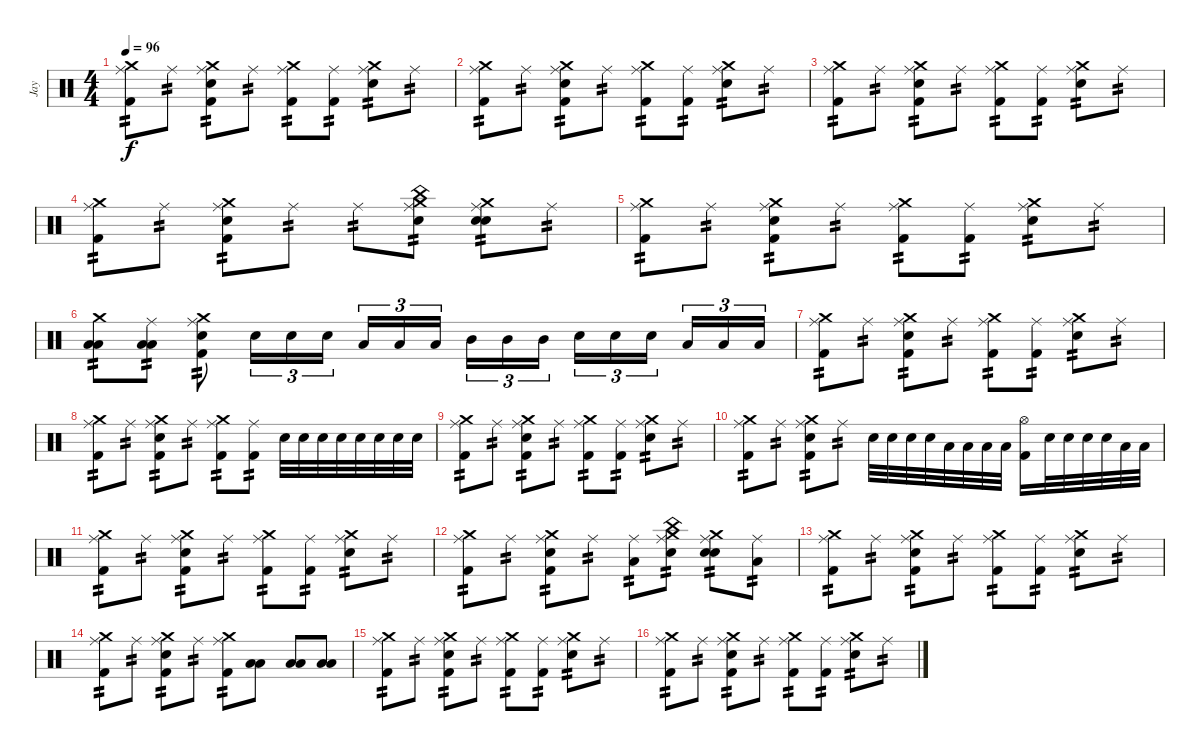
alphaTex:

\track ("Jay" "Jay") {instrument percussion}
\staff {score}
\articulation defaults
\ts (4 4)
\tempo 96
\clef neutral
\ks c
("Crash medium (hit)" "Ride (middle)" "Kick (hit) 2").8{tp 2 dy f} "Ride (middle)".8{tp 2} ("Crash medium (hit)" "Electric Snare (hit)" "Kick (hit) 2" "Ride (middle)").8{tp 2} "Ride (middle)".8{tp 2} ("Crash medium (hit)" "Ride (middle)" "Kick (hit) 2").8{tp 2} ("Ride (middle)" "Kick (hit) 2").8{tp 2} ("Crash medium (hit)" "Ride (middle)" "Electric Snare (hit)").8{tp 2} "Ride (middle)".8{tp 2} |
("Crash medium (hit)" "Ride (middle)" "Kick (hit) 2").8{tp 2} "Ride (middle)".8{tp 2} ("Crash medium (hit)" "Electric Snare (hit)" "Kick (hit) 2" "Ride (middle)").8{tp 2} "Ride (middle)".8{tp 2} ("Crash medium (hit)" "Ride (middle)" "Kick (hit) 2").8{tp 2} ("Ride (middle)" "Kick (hit) 2").8{tp 2} ("Crash medium (hit)" "Ride (middle)" "Electric Snare (hit)").8{tp 2} "Ride (middle)".8{tp 2} |
("Crash medium (hit)" "Ride (middle)" "Kick (hit) 2").8{tp 2} "Ride (middle)".8{tp 2} ("Crash medium (hit)" "Electric Snare (hit)" "Kick (hit) 2" "Ride (middle)").8{tp 2} "Ride (middle)".8{tp 2} ("Crash medium (hit)" "Ride (middle)" "Kick (hit) 2").8{tp 2} ("Ride (middle)" "Kick (hit) 2").8{tp 2} ("Crash medium (hit)" "Ride (middle)" "Electric Snare (hit)").8{tp 2} "Ride (middle)".8{tp 2} |
("Crash medium (hit)" "Ride (middle)" "Kick (hit) 2").8{tp 2} "Ride (middle)".8{tp 2} ("Crash medium (hit)" "Electric Snare (hit)" "Kick (hit) 2" "Ride (middle)").8{tp 2} "Ride (middle)".8{tp 2} "Ride (middle)".8{tp 2} ("Crash medium (hit)" "Ride (middle)" "Electric Snare (hit)" "China (hit)").8{tp 2} ("Crash medium (hit)" "Ride (middle)" "Electric Snare (hit)" "Snare (hit)").8{tp 2} "Ride (middle)".8{tp 2} |
("Crash medium (hit)" "Ride (middle)" "Kick (hit) 2").8{tp 2} "Ride (middle)".8{tp 2} ("Crash medium (hit)" "Electric Snare (hit)" "Kick (hit) 2" "Ride (middle)").8{tp 2} "Ride (middle)".8{tp 2} ("Crash medium (hit)" "Ride (middle)" "Kick (hit) 2").8{tp 2} ("Ride (middle)" "Kick (hit) 2").8{tp 2} ("Crash medium (hit)" "Ride (middle)" "Electric Snare (hit)").8{tp 2} "Ride (middle)".8{tp 2} |
("Crash medium (hit)" "Low Tom (hit)" "Low Tom (hit)").8{tp 2} ("Ride (middle)" "Low Tom (hit)" "Low Tom (hit)").8{tp 2} ("Crash medium (hit)" "Electric Snare (hit)" "Kick (hit) 2" "Ride (middle)").8{tp 2} "Electric Snare (hit)".16{tu (3 2)} "Electric Snare (hit)".16{tu (3 2)} "Electric Snare (hit)".16{tu (3 2)} "Low Tom (hit)".16{tu (3 2)} "Low Tom (hit)".16{tu (3 2)} "Low Tom (hit)".16{tu (3 2) beam splitsecondary} "Mid Tom (hit)".16{tu (3 2)} "Mid Tom (hit)".16{tu (3 2)} "Mid Tom (hit)".16{tu (3 2)} "Electric Snare (hit)".16{tu (3 2)} "Electric Snare (hit)".16{tu (3 2)} "Electric Snare (hit)".16{tu (3 2) beam splitsecondary} "Low Tom (hit)".16{tu (3 2)} "Low Tom (hit)".16{tu (3 2)} "Low Tom (hit)".16{tu (3 2)} |
("Crash medium (hit)" "Ride (middle)" "Kick (hit) 2").8{tp 2} "Ride (middle)".8{tp 2} ("Crash medium (hit)" "Electric Snare (hit)" "Kick (hit) 2" "Ride (middle)").8{tp 2} "Ride (middle)".8{tp 2} ("Crash medium (hit)" "Ride (middle)" "Kick (hit) 2").8{tp 2} ("Ride (middle)" "Kick (hit) 2").8{tp 2} ("Crash medium (hit)" "Ride (middle)" "Electric Snare (hit)").8{tp 2} "Ride (middle)".8{tp 2} |
("Crash medium (hit)" "Ride (middle)" "Kick (hit) 2").8{tp 2} "Ride (middle)".8{tp 2} ("Crash medium (hit)" "Electric Snare (hit)" "Kick (hit) 2" "Ride (middle)").8{tp 2} "Ride (middle)".8{tp 2} ("Crash medium (hit)" "Ride (middle)" "Kick (hit) 2").8{tp 2} ("Ride (middle)" "Kick (hit) 2").8{tp 2} "Electric Snare (hit)".32 "Electric Snare (hit)".32 "Electric Snare (hit)".32 "Electric Snare (hit)".32 "Electric Snare (hit)".32 "Electric Snare (hit)".32 "Electric Snare (hit)".32 "Electric Snare (hit)".32 |
("Crash medium (hit)" "Ride (middle)" "Kick (hit) 2").8{tp 2} "Ride (middle)".8{tp 2} ("Crash medium (hit)" "Electric Snare (hit)" "Kick (hit) 2" "Ride (middle)").8{tp 2} "Ride (middle)".8{tp 2} ("Crash medium (hit)" "Ride (middle)" "Kick (hit) 2").8{tp 2} ("Ride (middle)" "Kick (hit) 2").8{tp 2} ("Crash medium (hit)" "Ride (middle)" "Electric Snare (hit)").8{tp 2} "Ride (middle)".8{tp 2} |
("Crash medium (hit)" "Ride (middle)" "Kick (hit) 2").8{tp 2} "Ride (middle)".8{tp 2} ("Crash medium (hit)" "Electric Snare (hit)" "Kick (hit) 2" "Ride (middle)").8{tp 2} "Ride (middle)".8{tp 2} "Electric Snare (hit)".32 "Electric Snare (hit)".32 "Electric Snare (hit)".32 "Electric Snare (hit)".32 "Low Tom (hit)".32 "Low Tom (hit)".32 "Low Tom (hit)".32 "Low Tom (hit)".32 ("Hi-Hat (open)" "Kick (hit) 2").16 "Electric Snare (hit)".32 "Electric Snare (hit)".32 "Electric Snare (hit)".32 "Electric Snare (hit)".32 "Low Tom (hit)".32 "Low Tom (hit)".32 |
("Crash medium (hit)" "Ride (middle)" "Kick (hit) 2").8{tp 2} "Ride (middle)".8{tp 2} ("Crash medium (hit)" "Electric Snare (hit)" "Kick (hit) 2" "Ride (middle)").8{tp 2} "Ride (middle)".8{tp 2} ("Crash medium (hit)" "Ride (middle)" "Kick (hit) 2").8{tp 2} ("Ride (middle)" "Kick (hit) 2").8{tp 2} ("Crash medium (hit)" "Ride (middle)" "Electric Snare (hit)").8{tp 2} "Ride (middle)".8{tp 2} |
("Crash medium (hit)" "Ride (middle)" "Kick (hit) 2").8{tp 2} "Ride (middle)".8{tp 2} ("Crash medium (hit)" "Electric Snare (hit)" "Kick (hit) 2" "Ride (middle)").8{tp 2} "Ride (middle)".8{tp 2} ("Ride (middle)" "Low Tom (hit)").8{tp 2} ("Crash medium (hit)" "Ride (middle)" "Electric Snare (hit)" "China (hit)").8{tp 2} ("Crash medium (hit)" "Ride (middle)" "Electric Snare (hit)" "Snare (hit)").8{tp 2} ("Ride (middle)" "Low Tom (hit)").8{tp 2} |
("Crash medium (hit)" "Ride (middle)" "Kick (hit) 2").8{tp 2} "Ride (middle)".8{tp 2} ("Crash medium (hit)" "Electric Snare (hit)" "Kick (hit) 2" "Ride (middle)").8{tp 2} "Ride (middle)".8{tp 2} ("Crash medium (hit)" "Ride (middle)" "Kick (hit) 2").8{tp 2} ("Ride (middle)" "Kick (hit) 2").8{tp 2} ("Crash medium (hit)" "Ride (middle)" "Electric Snare (hit)").8{tp 2} "Ride (middle)".8{tp 2} |
("Crash medium (hit)" "Ride (middle)" "Kick (hit) 2").8{tp 2} "Ride (middle)".8{tp 2} ("Crash medium (hit)" "Electric Snare (hit)" "Kick (hit) 2" "Ride (middle)").8{tp 2} "Ride (middle)".8{tp 2} ("Crash medium (hit)" "Ride (middle)" "Kick (hit) 2").8{tp 2} ("Low Tom (hit)" "Low Tom (hit)").8 ("Low Tom (hit)" "Low Tom (hit)").8 ("Low Tom (hit)" "Low Tom (hit)").8 |
("Crash medium (hit)" "Ride (middle)" "Kick (hit) 2").8{tp 2} "Ride (middle)".8{tp 2} ("Crash medium (hit)" "Electric Snare (hit)" "Kick (hit) 2" "Ride (middle)").8{tp 2} "Ride (middle)".8{tp 2} ("Crash medium (hit)" "Ride (middle)" "Kick (hit) 2").8{tp 2} ("Ride (middle)" "Kick (hit) 2").8{tp 2} ("Crash medium (hit)" "Ride (middle)" "Electric Snare (hit)").8{tp 2} "Ride (middle)".8{tp 2} |
("Crash medium (hit)" "Ride (middle)" "Kick (hit) 2").8{tp 2} "Ride (middle)".8{tp 2} ("Crash medium (hit)" "Electric Snare (hit)" "Kick (hit) 2" "Ride (middle)").8{tp 2} "Ride (middle)".8{tp 2} ("Crash medium (hit)" "Ride (middle)" "Kick (hit) 2").8{tp 2} ("Ride (middle)" "Kick (hit) 2").8{tp 2} ("Crash medium (hit)" "Ride (middle)" "Electric Snare (hit)").8{tp 2} "Ride (middle)".8{tp 2}
